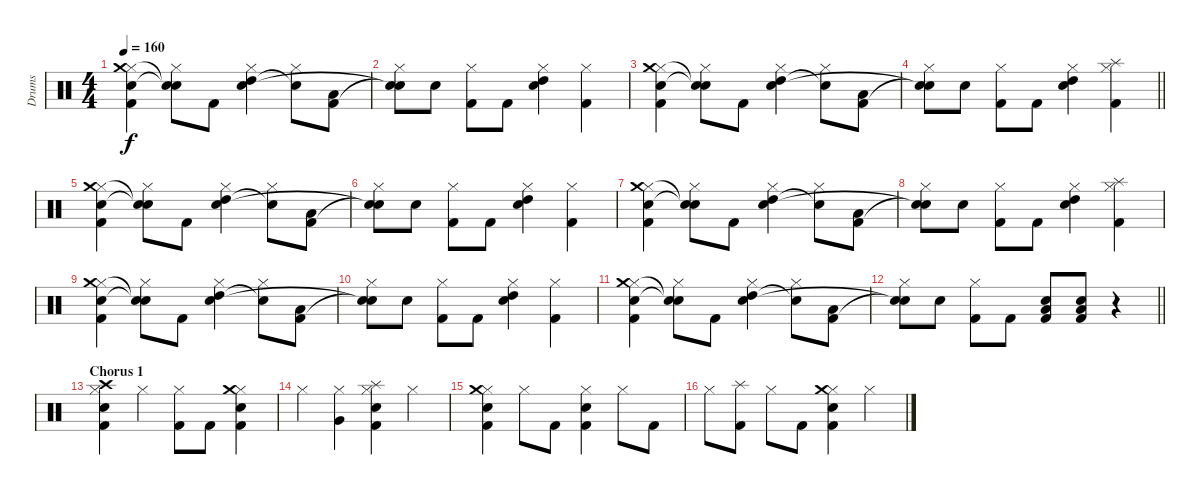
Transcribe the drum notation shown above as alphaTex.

\track ("Drums" "Drums") {instrument percussion}
\staff {score}
\articulation defaults
\ts (4 4)
\tempo 160
\clef neutral
\ks c
("Hi-Hat (closed)" "Crash medium (hit)" "Snare (hit) 2" "Kick (hit) 2").4{dy f} ("Hi-Hat (closed)" "Snare (hit)"{t} "Snare (hit)"{t}).8 "Kick (hit) 2".8 ("Hi-Hat (closed)" "High Tom (hit)" "Snare (hit) 2").4 ("Hi-Hat (closed)" "Snare (hit)"{t}).8 ("Low Floor Tom (hit)" "Kick (hit) 2").8 |
("Hi-Hat (closed)" "Snare (hit)"{t} "Snare (hit)"{t}).8 "Snare (hit) 2".8 ("Hi-Hat (closed)" "Kick (hit) 2").8 "Kick (hit) 2".8 ("Hi-Hat (closed)" "High Tom (hit)" "Snare (hit) 2").4 ("Hi-Hat (closed)" "Kick (hit) 2").4 |
("Hi-Hat (closed)" "Crash medium (hit)" "Snare (hit) 2" "Kick (hit) 2").4 ("Hi-Hat (closed)" "Snare (hit)"{t} "Snare (hit)"{t}).8 "Kick (hit) 2".8 ("Hi-Hat (closed)" "High Tom (hit)" "Snare (hit) 2").4 ("Hi-Hat (closed)" "Snare (hit)"{t}).8 ("Low Floor Tom (hit)" "Kick (hit) 2").8 |
\barLineRight lightlight
("Hi-Hat (closed)" "Snare (hit)"{t} "Snare (hit)"{t}).8 "Snare (hit) 2".8 ("Hi-Hat (closed)" "Kick (hit) 2").8 "Kick (hit) 2".8 ("Hi-Hat (closed)" "High Tom (hit)" "Snare (hit) 2").4 ("Hi-Hat (closed)" "Splash (hit)" "Kick (hit) 2").4 |
("Hi-Hat (closed)" "Crash medium (hit)" "Snare (hit) 2" "Kick (hit) 2").4 ("Hi-Hat (closed)" "Snare (hit)"{t} "Snare (hit)"{t}).8 "Kick (hit) 2".8 ("Hi-Hat (closed)" "High Tom (hit)" "Snare (hit) 2").4 ("Hi-Hat (closed)" "Snare (hit)"{t}).8 ("Low Floor Tom (hit)" "Kick (hit) 2").8 |
("Hi-Hat (closed)" "Snare (hit)"{t} "Snare (hit)"{t}).8 "Snare (hit) 2".8 ("Hi-Hat (closed)" "Kick (hit) 2").8 "Kick (hit) 2".8 ("Hi-Hat (closed)" "High Tom (hit)" "Snare (hit) 2").4 ("Hi-Hat (closed)" "Kick (hit) 2").4 |
("Hi-Hat (closed)" "Crash medium (hit)" "Snare (hit) 2" "Kick (hit) 2").4 ("Hi-Hat (closed)" "Snare (hit)"{t} "Snare (hit)"{t}).8 "Kick (hit) 2".8 ("Hi-Hat (closed)" "High Tom (hit)" "Snare (hit) 2").4 ("Hi-Hat (closed)" "Snare (hit)"{t}).8 ("Low Floor Tom (hit)" "Kick (hit) 2").8 |
("Hi-Hat (closed)" "Snare (hit)"{t} "Snare (hit)"{t}).8 "Snare (hit) 2".8 ("Hi-Hat (closed)" "Kick (hit) 2").8 "Kick (hit) 2".8 ("Hi-Hat (closed)" "High Tom (hit)" "Snare (hit) 2").4 ("Hi-Hat (closed)" "Splash (hit)" "Kick (hit) 2").4 |
("Hi-Hat (closed)" "Crash medium (hit)" "Snare (hit) 2" "Kick (hit) 2").4 ("Hi-Hat (closed)" "Snare (hit)"{t} "Snare (hit)"{t}).8 "Kick (hit) 2".8 ("Hi-Hat (closed)" "High Tom (hit)" "Snare (hit) 2").4 ("Hi-Hat (closed)" "Snare (hit)"{t}).8 ("Low Floor Tom (hit)" "Kick (hit) 2").8 |
("Hi-Hat (closed)" "Snare (hit)"{t} "Snare (hit)"{t}).8 "Snare (hit) 2".8 ("Hi-Hat (closed)" "Kick (hit) 2").8 "Kick (hit) 2".8 ("Hi-Hat (closed)" "High Tom (hit)" "Snare (hit) 2").4 ("Hi-Hat (closed)" "Kick (hit) 2").4 |
("Hi-Hat (closed)" "Crash medium (hit)" "Snare (hit) 2" "Kick (hit) 2").4 ("Hi-Hat (closed)" "Snare (hit)"{t} "Snare (hit)"{t}).8 "Kick (hit) 2".8 ("Hi-Hat (closed)" "High Tom (hit)" "Snare (hit) 2").4 ("Hi-Hat (closed)" "Snare (hit)"{t}).8 ("Low Floor Tom (hit)" "Kick (hit) 2").8 |
\barLineRight lightlight
("Hi-Hat (closed)" "Snare (hit)"{t} "Snare (hit)"{t}).8 "Snare (hit) 2".8 ("Hi-Hat (closed)" "Kick (hit) 2").8 "Kick (hit) 2".8 ("Low Floor Tom (hit)" "Electric Snare (hit)" "Kick (hit) 2").8 ("Low Floor Tom (hit)" "Electric Snare (hit)" "Kick (hit) 2").8 r.4 |
\section ("" "Chorus 1")
("Hi-Hat (closed)" "Crash high (hit)" "Snare (hit) 2" "Kick (hit) 2").4 "Hi-Hat (closed)".4 ("Hi-Hat (closed)" "Kick (hit) 2").8 "Kick (hit) 2".8 ("Hi-Hat (closed)" "Crash medium (hit)" "Snare (hit) 2" "Kick (hit) 2").4 |
"Hi-Hat (closed)".4 ("Hi-Hat (closed)" "Very Low Tom (hit)").4 ("Hi-Hat (closed)" "Splash (hit)" "Snare (hit) 2" "Kick (hit) 2").4 "Hi-Hat (closed)".4 |
("Hi-Hat (closed)" "Crash medium (hit)" "Snare (hit) 2" "Kick (hit) 2").4 "Hi-Hat (closed)".8 "Kick (hit) 2".8 ("Hi-Hat (closed)" "Snare (hit) 2" "Kick (hit) 2").4 "Hi-Hat (closed)".8 "Kick (hit) 2".8 |
"Hi-Hat (closed)".8 ("Splash (hit)" "Kick (hit) 2").8 "Hi-Hat (closed)".8 "Kick (hit) 2".8 ("Hi-Hat (closed)" "Crash medium (hit)" "Snare (hit) 2" "Kick (hit) 2").4 "Hi-Hat (closed)".4
